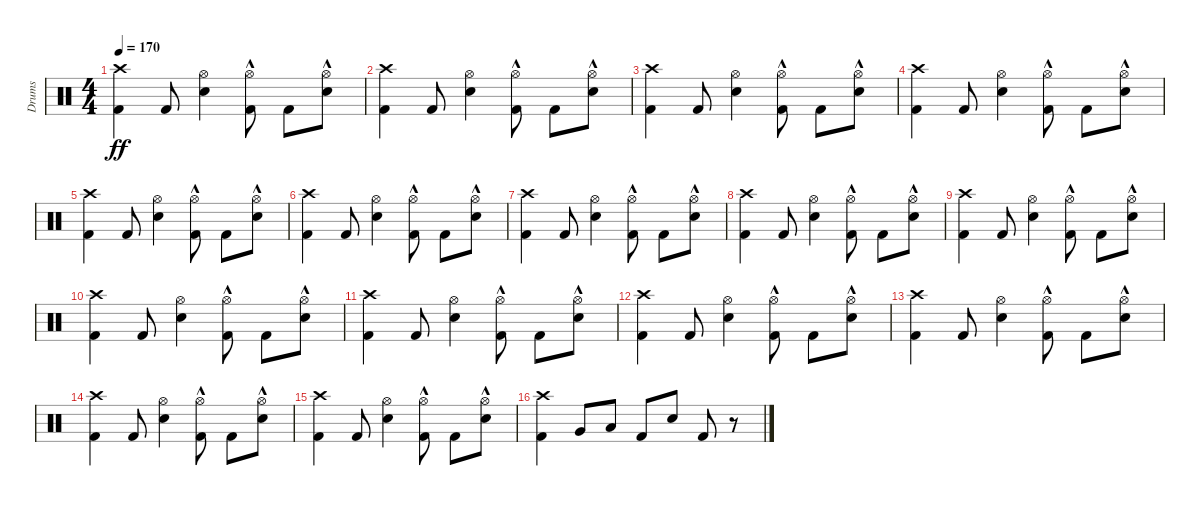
\track ("Drums" "Drums") {instrument percussion}
\staff {score}
\articulation defaults
\ts (4 4)
\tempo 170
\clef neutral
\ks c
("Kick (hit) 2" "Crash high (hit)").4{dy ff} "Kick (hit) 2".8 ("Snare (hit) 2" "Hi-Hat (open)").4 ("Kick (hit) 2" "Hi-Hat (open)"{hac}).8 "Kick (hit) 2".8 ("Snare (hit) 2" "Hi-Hat (open)"{hac}).8 |
("Kick (hit) 2" "Crash high (hit)").4 "Kick (hit) 2".8 ("Snare (hit) 2" "Hi-Hat (open)").4 ("Kick (hit) 2" "Hi-Hat (open)"{hac}).8 "Kick (hit) 2".8 ("Snare (hit) 2" "Hi-Hat (open)"{hac}).8 |
("Kick (hit) 2" "Crash high (hit)").4 "Kick (hit) 2".8 ("Snare (hit) 2" "Hi-Hat (open)").4 ("Kick (hit) 2" "Hi-Hat (open)"{hac}).8 "Kick (hit) 2".8 ("Snare (hit) 2" "Hi-Hat (open)"{hac}).8 |
("Kick (hit) 2" "Crash high (hit)").4 "Kick (hit) 2".8 ("Snare (hit) 2" "Hi-Hat (open)").4 ("Kick (hit) 2" "Hi-Hat (open)"{hac}).8 "Kick (hit) 2".8 ("Snare (hit) 2" "Hi-Hat (open)"{hac}).8 |
("Kick (hit) 2" "Crash high (hit)").4 "Kick (hit) 2".8 ("Snare (hit) 2" "Hi-Hat (open)").4 ("Kick (hit) 2" "Hi-Hat (open)"{hac}).8 "Kick (hit) 2".8 ("Snare (hit) 2" "Hi-Hat (open)"{hac}).8 |
("Kick (hit) 2" "Crash high (hit)").4 "Kick (hit) 2".8 ("Snare (hit) 2" "Hi-Hat (open)").4 ("Kick (hit) 2" "Hi-Hat (open)"{hac}).8 "Kick (hit) 2".8 ("Snare (hit) 2" "Hi-Hat (open)"{hac}).8 |
("Kick (hit) 2" "Crash high (hit)").4 "Kick (hit) 2".8 ("Snare (hit) 2" "Hi-Hat (open)").4 ("Kick (hit) 2" "Hi-Hat (open)"{hac}).8 "Kick (hit) 2".8 ("Snare (hit) 2" "Hi-Hat (open)"{hac}).8 |
("Kick (hit) 2" "Crash high (hit)").4 "Kick (hit) 2".8 ("Snare (hit) 2" "Hi-Hat (open)").4 ("Kick (hit) 2" "Hi-Hat (open)"{hac}).8 "Kick (hit) 2".8 ("Snare (hit) 2" "Hi-Hat (open)"{hac}).8 |
("Kick (hit) 2" "Crash high (hit)").4 "Kick (hit) 2".8 ("Snare (hit) 2" "Hi-Hat (open)").4 ("Kick (hit) 2" "Hi-Hat (open)"{hac}).8 "Kick (hit) 2".8 ("Snare (hit) 2" "Hi-Hat (open)"{hac}).8 |
("Kick (hit) 2" "Crash high (hit)").4 "Kick (hit) 2".8 ("Snare (hit) 2" "Hi-Hat (open)").4 ("Kick (hit) 2" "Hi-Hat (open)"{hac}).8 "Kick (hit) 2".8 ("Snare (hit) 2" "Hi-Hat (open)"{hac}).8 |
("Kick (hit) 2" "Crash high (hit)").4 "Kick (hit) 2".8 ("Snare (hit) 2" "Hi-Hat (open)").4 ("Kick (hit) 2" "Hi-Hat (open)"{hac}).8 "Kick (hit) 2".8 ("Snare (hit) 2" "Hi-Hat (open)"{hac}).8 |
("Kick (hit) 2" "Crash high (hit)").4 "Kick (hit) 2".8 ("Snare (hit) 2" "Hi-Hat (open)").4 ("Kick (hit) 2" "Hi-Hat (open)"{hac}).8 "Kick (hit) 2".8 ("Snare (hit) 2" "Hi-Hat (open)"{hac}).8 |
("Kick (hit) 2" "Crash high (hit)").4 "Kick (hit) 2".8 ("Snare (hit) 2" "Hi-Hat (open)").4 ("Kick (hit) 2" "Hi-Hat (open)"{hac}).8 "Kick (hit) 2".8 ("Snare (hit) 2" "Hi-Hat (open)"{hac}).8 |
("Kick (hit) 2" "Crash high (hit)").4 "Kick (hit) 2".8 ("Snare (hit) 2" "Hi-Hat (open)").4 ("Kick (hit) 2" "Hi-Hat (open)"{hac}).8 "Kick (hit) 2".8 ("Snare (hit) 2" "Hi-Hat (open)"{hac}).8 |
("Kick (hit) 2" "Crash high (hit)").4 "Kick (hit) 2".8 ("Snare (hit) 2" "Hi-Hat (open)").4 ("Kick (hit) 2" "Hi-Hat (open)"{hac}).8 "Kick (hit) 2".8 ("Snare (hit) 2" "Hi-Hat (open)"{hac}).8 |
("Kick (hit) 2" "Crash high (hit)").4 "Very Low Tom (hit)".8 "Low Floor Tom (hit)".8 "Kick (hit) 2".8 "Snare (hit) 2".8 "Kick (hit) 2".8 r.8
